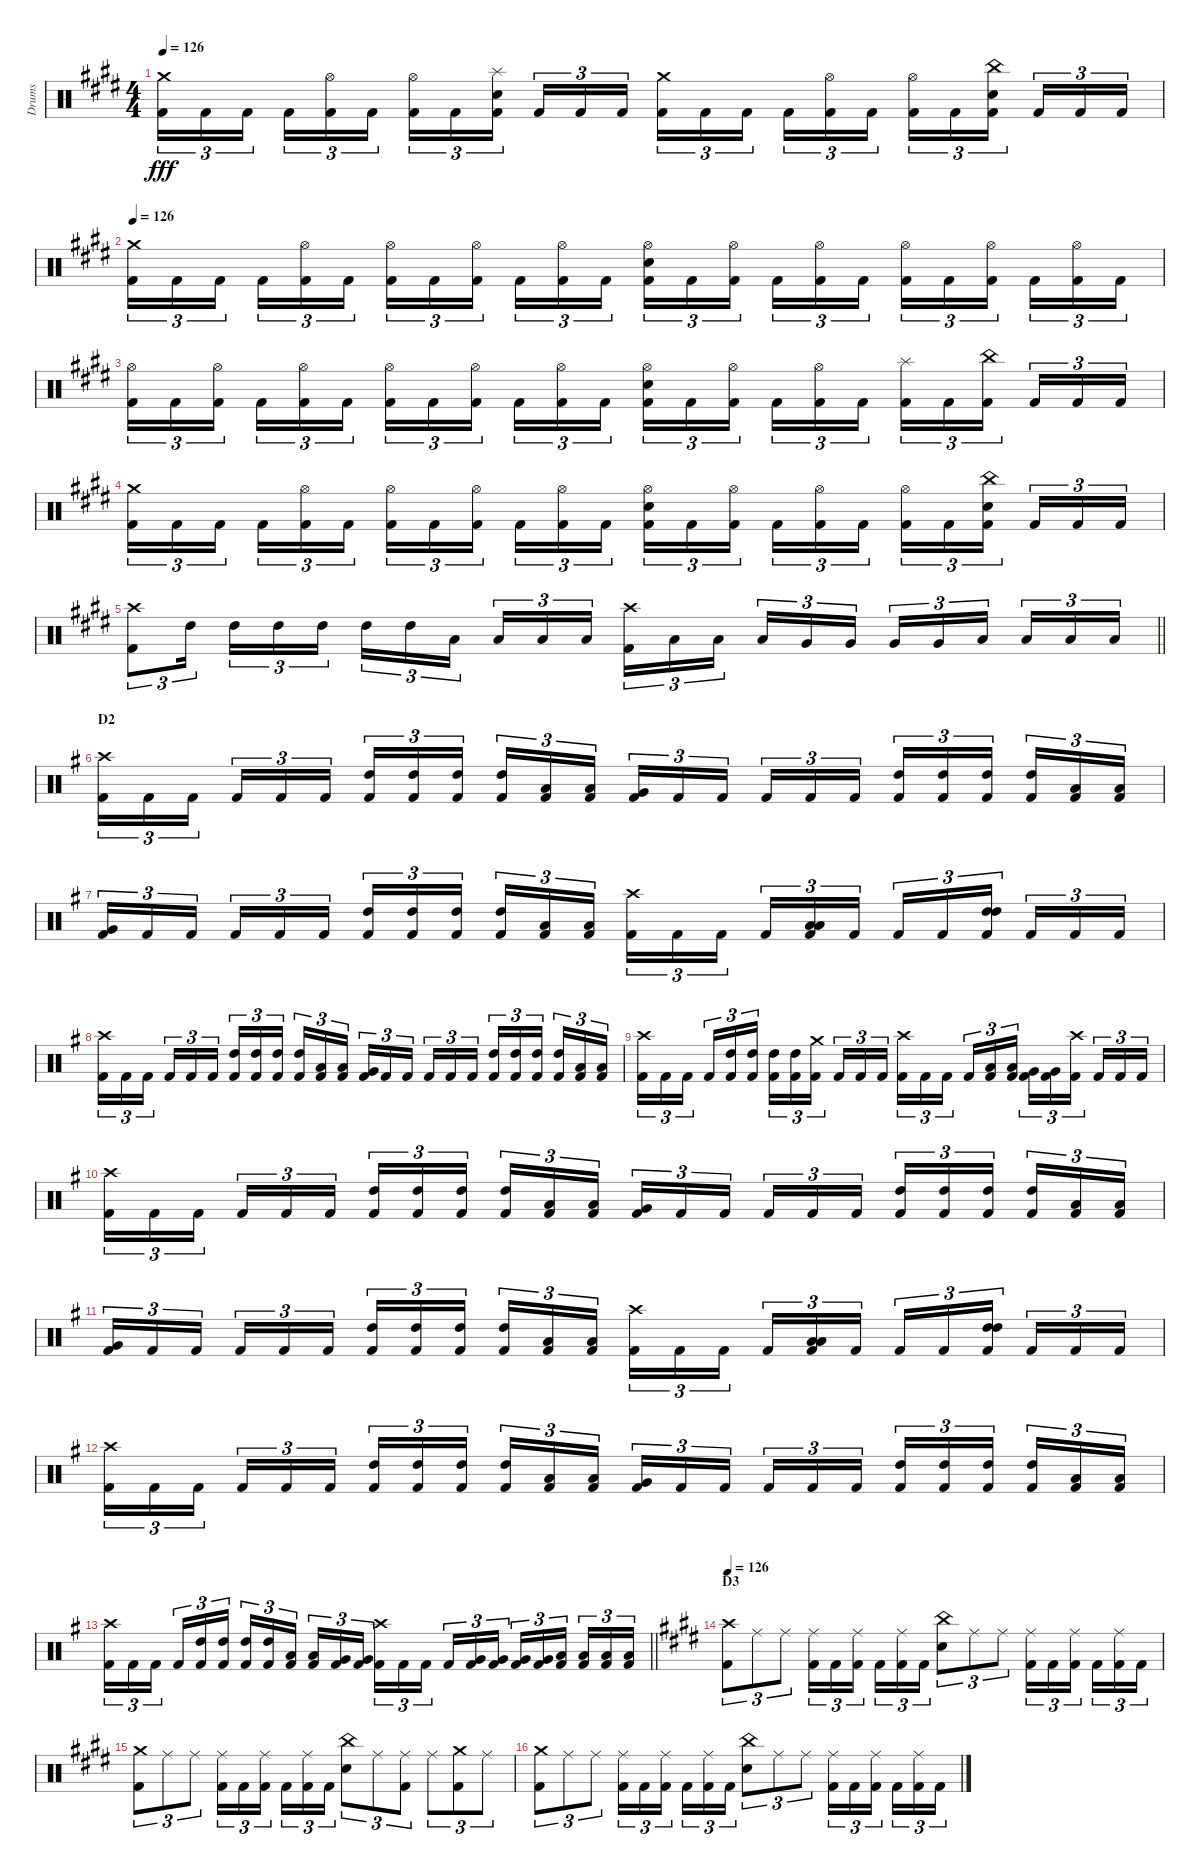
\track ("Drums" "Drums") {instrument percussion}
\staff {score}
\articulation defaults
\ts (4 4)
\tempo 126
\clef neutral
\ks c#minor
("Crash medium (hit)" "Kick (hit) 2").16{tu (3 2) dy fff} "Kick (hit) 2".16{tu (3 2)} "Kick (hit) 2".16{tu (3 2) beam splitsecondary} "Kick (hit) 2".16{tu (3 2)} ("Hi-Hat (open)" "Kick (hit) 2").16{tu (3 2)} "Kick (hit) 2".16{tu (3 2)} ("Hi-Hat (open)" "Kick (hit) 2").16{tu (3 2)} "Kick (hit) 2".16{tu (3 2)} ("Snare (hit) 2" "Splash (hit)" "Kick (hit) 2").16{tu (3 2) beam splitsecondary} "Kick (hit) 2".16{tu (3 2)} "Kick (hit) 2".16{tu (3 2)} "Kick (hit) 2".16{tu (3 2)} ("Crash medium (hit)" "Kick (hit) 2").16{tu (3 2)} "Kick (hit) 2".16{tu (3 2)} "Kick (hit) 2".16{tu (3 2) beam splitsecondary} "Kick (hit) 2".16{tu (3 2)} ("Hi-Hat (open)" "Kick (hit) 2").16{tu (3 2)} "Kick (hit) 2".16{tu (3 2)} ("Hi-Hat (open)" "Kick (hit) 2").16{tu (3 2)} "Kick (hit) 2".16{tu (3 2)} ("Snare (hit) 2" "China (hit)" "Kick (hit) 2").16{tu (3 2) beam splitsecondary} "Kick (hit) 2".16{tu (3 2)} "Kick (hit) 2".16{tu (3 2)} "Kick (hit) 2".16{tu (3 2)} |
\tempo 126
("Crash medium (hit)" "Kick (hit) 2").16{tu (3 2)} "Kick (hit) 2".16{tu (3 2)} "Kick (hit) 2".16{tu (3 2) beam splitsecondary} "Kick (hit) 2".16{tu (3 2)} ("Hi-Hat (open)" "Kick (hit) 2").16{tu (3 2)} "Kick (hit) 2".16{tu (3 2)} ("Hi-Hat (open)" "Kick (hit) 2").16{tu (3 2)} "Kick (hit) 2".16{tu (3 2)} ("Hi-Hat (open)" "Kick (hit) 2").16{tu (3 2) beam splitsecondary} "Kick (hit) 2".16{tu (3 2)} ("Hi-Hat (open)" "Kick (hit) 2").16{tu (3 2)} "Kick (hit) 2".16{tu (3 2)} ("Snare (hit) 2" "Hi-Hat (open)" "Kick (hit) 2").16{tu (3 2)} "Kick (hit) 2".16{tu (3 2)} ("Hi-Hat (open)" "Kick (hit) 2").16{tu (3 2) beam splitsecondary} "Kick (hit) 2".16{tu (3 2)} ("Hi-Hat (open)" "Kick (hit) 2").16{tu (3 2)} "Kick (hit) 2".16{tu (3 2)} ("Hi-Hat (open)" "Kick (hit) 2").16{tu (3 2)} "Kick (hit) 2".16{tu (3 2)} ("Hi-Hat (open)" "Kick (hit) 2").16{tu (3 2) beam splitsecondary} "Kick (hit) 2".16{tu (3 2)} ("Hi-Hat (open)" "Kick (hit) 2").16{tu (3 2)} "Kick (hit) 2".16{tu (3 2)} |
("Hi-Hat (open)" "Kick (hit) 2").16{tu (3 2)} "Kick (hit) 2".16{tu (3 2)} ("Hi-Hat (open)" "Kick (hit) 2").16{tu (3 2) beam splitsecondary} "Kick (hit) 2".16{tu (3 2)} ("Hi-Hat (open)" "Kick (hit) 2").16{tu (3 2)} "Kick (hit) 2".16{tu (3 2)} ("Hi-Hat (open)" "Kick (hit) 2").16{tu (3 2)} "Kick (hit) 2".16{tu (3 2)} ("Hi-Hat (open)" "Kick (hit) 2").16{tu (3 2) beam splitsecondary} "Kick (hit) 2".16{tu (3 2)} ("Hi-Hat (open)" "Kick (hit) 2").16{tu (3 2)} "Kick (hit) 2".16{tu (3 2)} ("Hi-Hat (open)" "Snare (hit) 2" "Kick (hit) 2").16{tu (3 2)} "Kick (hit) 2".16{tu (3 2)} ("Hi-Hat (open)" "Kick (hit) 2").16{tu (3 2) beam splitsecondary} "Kick (hit) 2".16{tu (3 2)} ("Hi-Hat (open)" "Kick (hit) 2").16{tu (3 2)} "Kick (hit) 2".16{tu (3 2)} ("Splash (hit)" "Kick (hit) 2").16{tu (3 2)} "Kick (hit) 2".16{tu (3 2)} ("China (hit)" "Kick (hit) 2").16{tu (3 2) beam splitsecondary} "Kick (hit) 2".16{tu (3 2)} "Kick (hit) 2".16{tu (3 2)} "Kick (hit) 2".16{tu (3 2)} |
("Crash medium (hit)" "Kick (hit) 2").16{tu (3 2)} "Kick (hit) 2".16{tu (3 2)} "Kick (hit) 2".16{tu (3 2) beam splitsecondary} "Kick (hit) 2".16{tu (3 2)} ("Hi-Hat (open)" "Kick (hit) 2").16{tu (3 2)} "Kick (hit) 2".16{tu (3 2)} ("Hi-Hat (open)" "Kick (hit) 2").16{tu (3 2)} "Kick (hit) 2".16{tu (3 2)} ("Hi-Hat (open)" "Kick (hit) 2").16{tu (3 2) beam splitsecondary} "Kick (hit) 2".16{tu (3 2)} ("Hi-Hat (open)" "Kick (hit) 2").16{tu (3 2)} "Kick (hit) 2".16{tu (3 2)} ("Snare (hit) 2" "Hi-Hat (open)" "Kick (hit) 2").16{tu (3 2)} "Kick (hit) 2".16{tu (3 2)} ("Hi-Hat (open)" "Kick (hit) 2").16{tu (3 2) beam splitsecondary} "Kick (hit) 2".16{tu (3 2)} ("Hi-Hat (open)" "Kick (hit) 2").16{tu (3 2)} "Kick (hit) 2".16{tu (3 2)} ("Hi-Hat (open)" "Kick (hit) 2").16{tu (3 2)} "Kick (hit) 2".16{tu (3 2)} ("China (hit)" "Snare (hit) 2" "Kick (hit) 2").16{tu (3 2) beam splitsecondary} "Kick (hit) 2".16{tu (3 2)} "Kick (hit) 2".16{tu (3 2)} "Kick (hit) 2".16{tu (3 2)} |
\barLineRight lightlight
("Crash high (hit)" "Kick (hit) 2").8{tu (3 2)} "High Tom (hit)".16{tu (3 2) beam splitsecondary} "High Tom (hit)".16{tu (3 2)} "High Tom (hit)".16{tu (3 2)} "High Tom (hit)".16{tu (3 2)} "High Tom (hit)".16{tu (3 2)} "High Tom (hit)".16{tu (3 2)} "Low Tom (hit)".16{tu (3 2) beam splitsecondary} "Low Tom (hit)".16{tu (3 2)} "Low Tom (hit)".16{tu (3 2)} "Low Tom (hit)".16{tu (3 2)} ("Crash high (hit)" "Kick (hit) 2").16{tu (3 2)} "Low Tom (hit)".16{tu (3 2)} "Low Tom (hit)".16{tu (3 2) beam splitsecondary} "Low Tom (hit)".16{tu (3 2)} "Very Low Tom (hit)".16{tu (3 2)} "Very Low Tom (hit)".16{tu (3 2)} "Very Low Tom (hit)".16{tu (3 2)} "Very Low Tom (hit)".16{tu (3 2)} "Low Floor Tom (hit)".16{tu (3 2) beam splitsecondary} "Low Floor Tom (hit)".16{tu (3 2)} "Low Floor Tom (hit)".16{tu (3 2)} "Low Floor Tom (hit)".16{tu (3 2)} |
\section ("" "D2")
\ks eminor
("Crash high (hit)" "Kick (hit) 2").16{tu (3 2)} "Kick (hit) 2".16{tu (3 2)} "Kick (hit) 2".16{tu (3 2) beam splitsecondary} "Kick (hit) 2".16{tu (3 2)} "Kick (hit) 2".16{tu (3 2)} "Kick (hit) 2".16{tu (3 2)} ("Kick (hit) 2" "High Tom (hit)").16{tu (3 2)} ("Kick (hit) 2" "High Tom (hit)").16{tu (3 2)} ("Kick (hit) 2" "High Tom (hit)").16{tu (3 2) beam splitsecondary} ("Kick (hit) 2" "High Tom (hit)").16{tu (3 2)} ("Kick (hit) 2" "Low Tom (hit)").16{tu (3 2)} ("Kick (hit) 2" "Low Tom (hit)").16{tu (3 2)} ("Kick (hit) 2" "Very Low Tom (hit)").16{tu (3 2)} "Kick (hit) 2".16{tu (3 2)} "Kick (hit) 2".16{tu (3 2) beam splitsecondary} "Kick (hit) 2".16{tu (3 2)} "Kick (hit) 2".16{tu (3 2)} "Kick (hit) 2".16{tu (3 2)} ("Kick (hit) 2" "High Tom (hit)").16{tu (3 2)} ("Kick (hit) 2" "High Tom (hit)").16{tu (3 2)} ("Kick (hit) 2" "High Tom (hit)").16{tu (3 2) beam splitsecondary} ("Kick (hit) 2" "High Tom (hit)").16{tu (3 2)} ("Kick (hit) 2" "Low Tom (hit)").16{tu (3 2)} ("Kick (hit) 2" "Low Tom (hit)").16{tu (3 2)} |
("Kick (hit) 2" "Very Low Tom (hit)").16{tu (3 2)} "Kick (hit) 2".16{tu (3 2)} "Kick (hit) 2".16{tu (3 2) beam splitsecondary} "Kick (hit) 2".16{tu (3 2)} "Kick (hit) 2".16{tu (3 2)} "Kick (hit) 2".16{tu (3 2)} ("Kick (hit) 2" "High Tom (hit)").16{tu (3 2)} ("Kick (hit) 2" "High Tom (hit)").16{tu (3 2)} ("Kick (hit) 2" "High Tom (hit)").16{tu (3 2) beam splitsecondary} ("Kick (hit) 2" "High Tom (hit)").16{tu (3 2)} ("Kick (hit) 2" "Low Tom (hit)").16{tu (3 2)} ("Kick (hit) 2" "Low Tom (hit)").16{tu (3 2)} ("Crash high (hit)" "Kick (hit) 2").16{tu (3 2)} "Kick (hit) 2".16{tu (3 2)} "Kick (hit) 2".16{tu (3 2) beam splitsecondary} "Kick (hit) 2".16{tu (3 2)} ("Kick (hit) 2" "Low Floor Tom (hit)" "Low Floor Tom (hit)").16{tu (3 2)} "Kick (hit) 2".16{tu (3 2)} "Kick (hit) 2".16{tu (3 2)} "Kick (hit) 2".16{tu (3 2)} ("Kick (hit) 2" "High Tom (hit)" "High Tom (hit)").16{tu (3 2) beam splitsecondary} "Kick (hit) 2".16{tu (3 2)} "Kick (hit) 2".16{tu (3 2)} "Kick (hit) 2".16{tu (3 2)} |
("Crash high (hit)" "Kick (hit) 2").16{tu (3 2)} "Kick (hit) 2".16{tu (3 2)} "Kick (hit) 2".16{tu (3 2) beam splitsecondary} "Kick (hit) 2".16{tu (3 2)} "Kick (hit) 2".16{tu (3 2)} "Kick (hit) 2".16{tu (3 2)} ("Kick (hit) 2" "High Tom (hit)").16{tu (3 2)} ("Kick (hit) 2" "High Tom (hit)").16{tu (3 2)} ("Kick (hit) 2" "High Tom (hit)").16{tu (3 2) beam splitsecondary} ("Kick (hit) 2" "High Tom (hit)").16{tu (3 2)} ("Kick (hit) 2" "Low Tom (hit)").16{tu (3 2)} ("Kick (hit) 2" "Low Tom (hit)").16{tu (3 2)} ("Kick (hit) 2" "Very Low Tom (hit)").16{tu (3 2)} "Kick (hit) 2".16{tu (3 2)} "Kick (hit) 2".16{tu (3 2) beam splitsecondary} "Kick (hit) 2".16{tu (3 2)} "Kick (hit) 2".16{tu (3 2)} "Kick (hit) 2".16{tu (3 2)} ("Kick (hit) 2" "High Tom (hit)").16{tu (3 2)} ("Kick (hit) 2" "High Tom (hit)").16{tu (3 2)} ("Kick (hit) 2" "High Tom (hit)").16{tu (3 2) beam splitsecondary} ("Kick (hit) 2" "High Tom (hit)").16{tu (3 2)} ("Kick (hit) 2" "Low Tom (hit)").16{tu (3 2)} ("Kick (hit) 2" "Low Tom (hit)").16{tu (3 2)} |
("Crash high (hit)" "Kick (hit) 2").16{tu (3 2)} "Kick (hit) 2".16{tu (3 2)} "Kick (hit) 2".16{tu (3 2) beam splitsecondary} "Kick (hit) 2".16{tu (3 2)} ("Kick (hit) 2" "High Tom (hit)").16{tu (3 2)} ("Kick (hit) 2" "High Tom (hit)").16{tu (3 2)} ("Kick (hit) 2" "High Tom (hit)").16{tu (3 2)} ("Kick (hit) 2" "High Tom (hit)").16{tu (3 2)} ("Crash medium (hit)" "Kick (hit) 2").16{tu (3 2) beam splitsecondary} "Kick (hit) 2".16{tu (3 2)} "Kick (hit) 2".16{tu (3 2)} "Kick (hit) 2".16{tu (3 2)} ("Crash high (hit)" "Kick (hit) 2").16{tu (3 2)} "Kick (hit) 2".16{tu (3 2)} "Kick (hit) 2".16{tu (3 2) beam splitsecondary} "Kick (hit) 2".16{tu (3 2)} ("Kick (hit) 2" "Low Tom (hit)").16{tu (3 2)} ("Kick (hit) 2" "Low Tom (hit)").16{tu (3 2)} ("Kick (hit) 2" "Very Low Tom (hit)").16{tu (3 2)} ("Kick (hit) 2" "Very Low Tom (hit)").16{tu (3 2)} ("Crash high (hit)" "Kick (hit) 2").16{tu (3 2) beam splitsecondary} "Kick (hit) 2".16{tu (3 2)} "Kick (hit) 2".16{tu (3 2)} "Kick (hit) 2".16{tu (3 2)} |
("Crash high (hit)" "Kick (hit) 2").16{tu (3 2)} "Kick (hit) 2".16{tu (3 2)} "Kick (hit) 2".16{tu (3 2) beam splitsecondary} "Kick (hit) 2".16{tu (3 2)} "Kick (hit) 2".16{tu (3 2)} "Kick (hit) 2".16{tu (3 2)} ("Kick (hit) 2" "High Tom (hit)").16{tu (3 2)} ("Kick (hit) 2" "High Tom (hit)").16{tu (3 2)} ("Kick (hit) 2" "High Tom (hit)").16{tu (3 2) beam splitsecondary} ("Kick (hit) 2" "High Tom (hit)").16{tu (3 2)} ("Kick (hit) 2" "Low Tom (hit)").16{tu (3 2)} ("Kick (hit) 2" "Low Tom (hit)").16{tu (3 2)} ("Kick (hit) 2" "Very Low Tom (hit)").16{tu (3 2)} "Kick (hit) 2".16{tu (3 2)} "Kick (hit) 2".16{tu (3 2) beam splitsecondary} "Kick (hit) 2".16{tu (3 2)} "Kick (hit) 2".16{tu (3 2)} "Kick (hit) 2".16{tu (3 2)} ("Kick (hit) 2" "High Tom (hit)").16{tu (3 2)} ("Kick (hit) 2" "High Tom (hit)").16{tu (3 2)} ("Kick (hit) 2" "High Tom (hit)").16{tu (3 2) beam splitsecondary} ("Kick (hit) 2" "High Tom (hit)").16{tu (3 2)} ("Kick (hit) 2" "Low Tom (hit)").16{tu (3 2)} ("Kick (hit) 2" "Low Tom (hit)").16{tu (3 2)} |
("Kick (hit) 2" "Very Low Tom (hit)").16{tu (3 2)} "Kick (hit) 2".16{tu (3 2)} "Kick (hit) 2".16{tu (3 2) beam splitsecondary} "Kick (hit) 2".16{tu (3 2)} "Kick (hit) 2".16{tu (3 2)} "Kick (hit) 2".16{tu (3 2)} ("Kick (hit) 2" "High Tom (hit)").16{tu (3 2)} ("Kick (hit) 2" "High Tom (hit)").16{tu (3 2)} ("Kick (hit) 2" "High Tom (hit)").16{tu (3 2) beam splitsecondary} ("Kick (hit) 2" "High Tom (hit)").16{tu (3 2)} ("Kick (hit) 2" "Low Tom (hit)").16{tu (3 2)} ("Kick (hit) 2" "Low Tom (hit)").16{tu (3 2)} ("Crash high (hit)" "Kick (hit) 2").16{tu (3 2)} "Kick (hit) 2".16{tu (3 2)} "Kick (hit) 2".16{tu (3 2) beam splitsecondary} "Kick (hit) 2".16{tu (3 2)} ("Kick (hit) 2" "Low Floor Tom (hit)" "Low Floor Tom (hit)").16{tu (3 2)} "Kick (hit) 2".16{tu (3 2)} "Kick (hit) 2".16{tu (3 2)} "Kick (hit) 2".16{tu (3 2)} ("Kick (hit) 2" "High Tom (hit)" "High Tom (hit)").16{tu (3 2) beam splitsecondary} "Kick (hit) 2".16{tu (3 2)} "Kick (hit) 2".16{tu (3 2)} "Kick (hit) 2".16{tu (3 2)} |
("Crash high (hit)" "Kick (hit) 2").16{tu (3 2)} "Kick (hit) 2".16{tu (3 2)} "Kick (hit) 2".16{tu (3 2) beam splitsecondary} "Kick (hit) 2".16{tu (3 2)} "Kick (hit) 2".16{tu (3 2)} "Kick (hit) 2".16{tu (3 2)} ("Kick (hit) 2" "High Tom (hit)").16{tu (3 2)} ("Kick (hit) 2" "High Tom (hit)").16{tu (3 2)} ("Kick (hit) 2" "High Tom (hit)").16{tu (3 2) beam splitsecondary} ("Kick (hit) 2" "High Tom (hit)").16{tu (3 2)} ("Kick (hit) 2" "Low Tom (hit)").16{tu (3 2)} ("Kick (hit) 2" "Low Tom (hit)").16{tu (3 2)} ("Kick (hit) 2" "Very Low Tom (hit)").16{tu (3 2)} "Kick (hit) 2".16{tu (3 2)} "Kick (hit) 2".16{tu (3 2) beam splitsecondary} "Kick (hit) 2".16{tu (3 2)} "Kick (hit) 2".16{tu (3 2)} "Kick (hit) 2".16{tu (3 2)} ("Kick (hit) 2" "High Tom (hit)").16{tu (3 2)} ("Kick (hit) 2" "High Tom (hit)").16{tu (3 2)} ("Kick (hit) 2" "High Tom (hit)").16{tu (3 2) beam splitsecondary} ("Kick (hit) 2" "High Tom (hit)").16{tu (3 2)} ("Kick (hit) 2" "Low Tom (hit)").16{tu (3 2)} ("Kick (hit) 2" "Low Tom (hit)").16{tu (3 2)} |
\barLineRight lightlight
("Crash high (hit)" "Kick (hit) 2").16{tu (3 2)} "Kick (hit) 2".16{tu (3 2)} "Kick (hit) 2".16{tu (3 2) beam splitsecondary} "Kick (hit) 2".16{tu (3 2)} ("Kick (hit) 2" "High Tom (hit)").16{tu (3 2)} ("Kick (hit) 2" "High Tom (hit)").16{tu (3 2)} ("Kick (hit) 2" "High Tom (hit)").16{tu (3 2)} ("Kick (hit) 2" "High Tom (hit)").16{tu (3 2)} ("Kick (hit) 2" "Low Tom (hit)").16{tu (3 2) beam splitsecondary} ("Kick (hit) 2" "Low Tom (hit)").16{tu (3 2)} ("Kick (hit) 2" "Very Low Tom (hit)").16{tu (3 2)} ("Kick (hit) 2" "Very Low Tom (hit)").16{tu (3 2)} ("Crash high (hit)" "Kick (hit) 2").16{tu (3 2)} "Kick (hit) 2".16{tu (3 2)} "Kick (hit) 2".16{tu (3 2) beam splitsecondary} "Kick (hit) 2".16{tu (3 2)} ("Kick (hit) 2" "Very Low Tom (hit)").16{tu (3 2)} ("Kick (hit) 2" "Very Low Tom (hit)").16{tu (3 2)} ("Kick (hit) 2" "Very Low Tom (hit)").16{tu (3 2)} ("Kick (hit) 2" "Very Low Tom (hit)").16{tu (3 2)} ("Kick (hit) 2" "Low Floor Tom (hit)").16{tu (3 2) beam splitsecondary} ("Kick (hit) 2" "Low Floor Tom (hit)").16{tu (3 2)} ("Kick (hit) 2" "Low Floor Tom (hit)").16{tu (3 2)} ("Kick (hit) 2" "Low Floor Tom (hit)").16{tu (3 2)} |
\section ("" "D3")
\tempo 126
\ks c#minor
("Crash high (hit)" "Kick (hit) 2").8{tu (3 2)} "Ride (middle)".8{tu (3 2)} "Ride (middle)".8{tu (3 2)} ("Ride (middle)" "Kick (hit) 2").16{tu (3 2)} "Kick (hit) 2".16{tu (3 2)} ("Ride (middle)" "Kick (hit) 2").16{tu (3 2) beam splitsecondary} "Kick (hit) 2".16{tu (3 2)} ("Ride (middle)" "Kick (hit) 2").16{tu (3 2)} "Kick (hit) 2".16{tu (3 2)} ("China (hit)" "Snare (hit) 2").8{tu (3 2)} "Ride (middle)".8{tu (3 2)} "Ride (middle)".8{tu (3 2)} ("Ride (middle)" "Kick (hit) 2").16{tu (3 2)} "Kick (hit) 2".16{tu (3 2)} ("Ride (middle)" "Kick (hit) 2").16{tu (3 2) beam splitsecondary} "Kick (hit) 2".16{tu (3 2)} ("Ride (middle)" "Kick (hit) 2").16{tu (3 2)} "Kick (hit) 2".16{tu (3 2)} |
("Crash medium (hit)" "Kick (hit) 2").8{tu (3 2)} "Ride (middle)".8{tu (3 2)} "Ride (middle)".8{tu (3 2)} ("Ride (middle)" "Kick (hit) 2").16{tu (3 2)} "Kick (hit) 2".16{tu (3 2)} ("Ride (middle)" "Kick (hit) 2").16{tu (3 2) beam splitsecondary} "Kick (hit) 2".16{tu (3 2)} ("Ride (middle)" "Kick (hit) 2").16{tu (3 2)} "Kick (hit) 2".16{tu (3 2)} ("China (hit)" "Snare (hit) 2").8{tu (3 2)} "Ride (middle)".8{tu (3 2)} ("Ride (middle)" "Kick (hit) 2").8{tu (3 2)} "Ride (middle)".8{tu (3 2)} ("Crash medium (hit)" "Kick (hit) 2").8{tu (3 2)} "Ride (middle)".8{tu (3 2)} |
("Crash medium (hit)" "Kick (hit) 2").8{tu (3 2)} "Ride (middle)".8{tu (3 2)} "Ride (middle)".8{tu (3 2)} ("Ride (middle)" "Kick (hit) 2").16{tu (3 2)} "Kick (hit) 2".16{tu (3 2)} ("Ride (middle)" "Kick (hit) 2").16{tu (3 2) beam splitsecondary} "Kick (hit) 2".16{tu (3 2)} ("Ride (middle)" "Kick (hit) 2").16{tu (3 2)} "Kick (hit) 2".16{tu (3 2)} ("China (hit)" "Snare (hit) 2").8{tu (3 2)} "Ride (middle)".8{tu (3 2)} "Ride (middle)".8{tu (3 2)} ("Ride (middle)" "Kick (hit) 2").16{tu (3 2)} "Kick (hit) 2".16{tu (3 2)} ("Ride (middle)" "Kick (hit) 2").16{tu (3 2) beam splitsecondary} "Kick (hit) 2".16{tu (3 2)} ("Ride (middle)" "Kick (hit) 2").16{tu (3 2)} "Kick (hit) 2".16{tu (3 2)}
